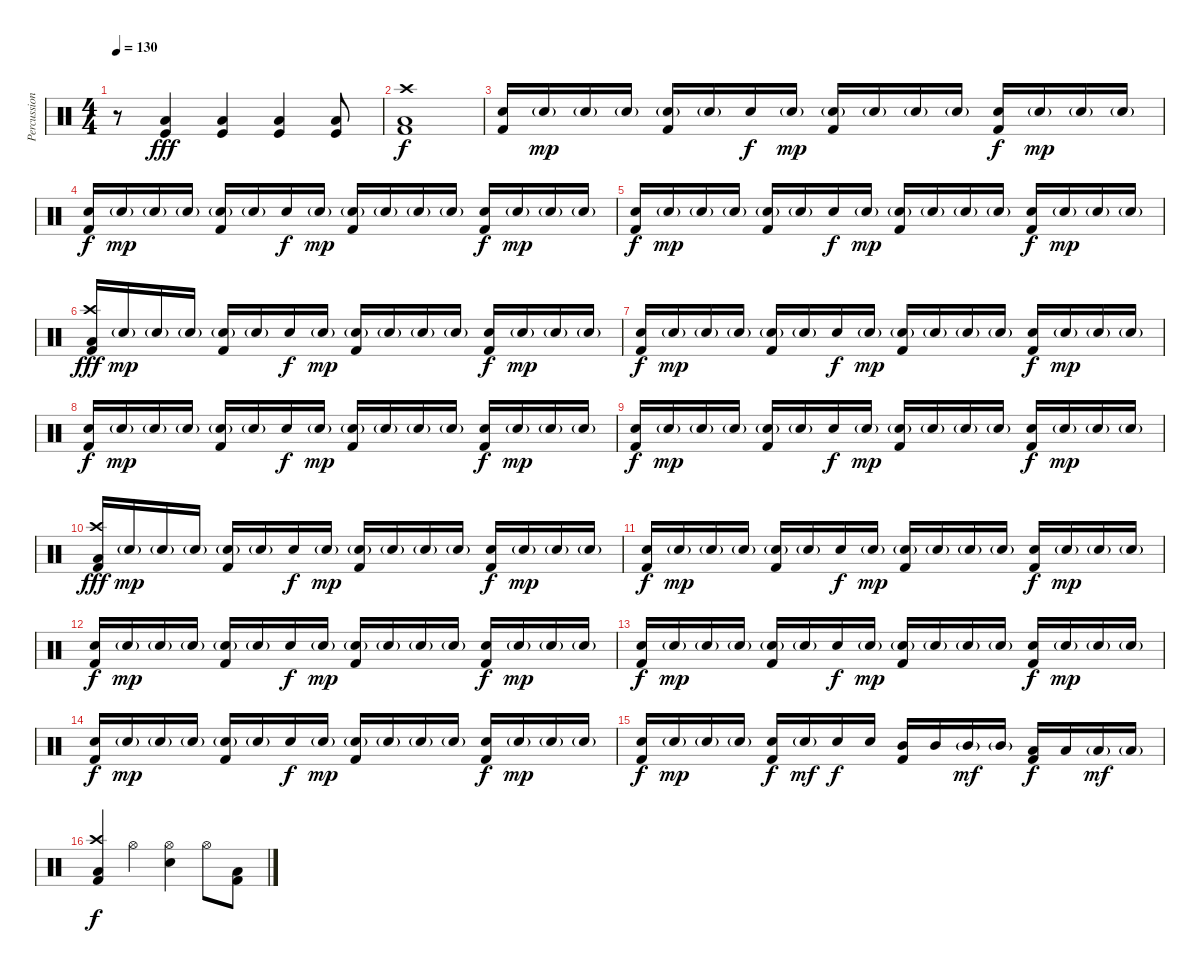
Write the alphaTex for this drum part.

\track ("Percussion" "Percussion") {instrument percussion}
\staff {score}
\articulation defaults
\ts (4 4)
\tempo 130
\clef neutral
\ks c
r.8{dy fff} ("Low Floor Tom (hit)" "Kick (hit)").4 ("Low Floor Tom (hit)" "Kick (hit)").4 ("Low Floor Tom (hit)" "Kick (hit)").4 ("Low Floor Tom (hit)" "Kick (hit)").8 |
("Crash high (hit)" "Low Floor Tom (hit)" "Kick (hit) 2").1{dy f} |
("Electric Snare (hit)" "Kick (hit) 2").16{volume 0} "Electric Snare (hit)"{g}.16{dy mp} "Electric Snare (hit)"{g}.16 "Electric Snare (hit)"{g}.16 ("Electric Snare (hit)"{g} "Kick (hit) 2").16{volume 7} "Electric Snare (hit)"{g}.16 "Electric Snare (hit)".16{dy f} "Electric Snare (hit)"{g}.16{dy mp} ("Electric Snare (hit)"{g} "Kick (hit) 2").16 "Electric Snare (hit)"{g}.16 "Electric Snare (hit)"{g}.16 "Electric Snare (hit)"{g}.16 ("Electric Snare (hit)" "Kick (hit) 2").16{dy f} "Electric Snare (hit)"{g}.16{dy mp} "Electric Snare (hit)"{g}.16 "Electric Snare (hit)"{g}.16 |
("Electric Snare (hit)" "Kick (hit) 2").16{dy f} "Electric Snare (hit)"{g}.16{dy mp} "Electric Snare (hit)"{g}.16 "Electric Snare (hit)"{g}.16 ("Electric Snare (hit)"{g} "Kick (hit) 2").16 "Electric Snare (hit)"{g}.16 "Electric Snare (hit)".16{dy f} "Electric Snare (hit)"{g}.16{dy mp} ("Electric Snare (hit)"{g} "Kick (hit) 2").16 "Electric Snare (hit)"{g}.16 "Electric Snare (hit)"{g}.16 "Electric Snare (hit)"{g}.16 ("Electric Snare (hit)" "Kick (hit) 2").16{dy f} "Electric Snare (hit)"{g}.16{dy mp} "Electric Snare (hit)"{g}.16 "Electric Snare (hit)"{g}.16 |
("Electric Snare (hit)" "Kick (hit) 2").16{dy f} "Electric Snare (hit)"{g}.16{dy mp} "Electric Snare (hit)"{g}.16 "Electric Snare (hit)"{g}.16 ("Electric Snare (hit)"{g} "Kick (hit) 2").16 "Electric Snare (hit)"{g}.16 "Electric Snare (hit)".16{dy f} "Electric Snare (hit)"{g}.16{dy mp} ("Electric Snare (hit)"{g} "Kick (hit) 2").16 "Electric Snare (hit)"{g}.16 "Electric Snare (hit)"{g}.16 "Electric Snare (hit)"{g}.16 ("Electric Snare (hit)" "Kick (hit) 2").16{dy f} "Electric Snare (hit)"{g}.16{dy mp} "Electric Snare (hit)"{g}.16 "Electric Snare (hit)"{g}.16 |
("Crash high (hit)" "Low Floor Tom (hit)" "Kick (hit) 2").16{dy fff} "Electric Snare (hit)"{g}.16{dy mp} "Electric Snare (hit)"{g}.16 "Electric Snare (hit)"{g}.16 ("Electric Snare (hit)"{g} "Kick (hit) 2").16 "Electric Snare (hit)"{g}.16 "Electric Snare (hit)".16{dy f} "Electric Snare (hit)"{g}.16{dy mp} ("Electric Snare (hit)"{g} "Kick (hit) 2").16 "Electric Snare (hit)"{g}.16 "Electric Snare (hit)"{g}.16 "Electric Snare (hit)"{g}.16 ("Electric Snare (hit)" "Kick (hit) 2").16{dy f} "Electric Snare (hit)"{g}.16{dy mp} "Electric Snare (hit)"{g}.16 "Electric Snare (hit)"{g}.16 |
("Electric Snare (hit)" "Kick (hit) 2").16{dy f} "Electric Snare (hit)"{g}.16{dy mp} "Electric Snare (hit)"{g}.16 "Electric Snare (hit)"{g}.16 ("Electric Snare (hit)"{g} "Kick (hit) 2").16 "Electric Snare (hit)"{g}.16 "Electric Snare (hit)".16{dy f} "Electric Snare (hit)"{g}.16{dy mp} ("Electric Snare (hit)"{g} "Kick (hit) 2").16 "Electric Snare (hit)"{g}.16 "Electric Snare (hit)"{g}.16 "Electric Snare (hit)"{g}.16 ("Electric Snare (hit)" "Kick (hit) 2").16{dy f} "Electric Snare (hit)"{g}.16{dy mp} "Electric Snare (hit)"{g}.16 "Electric Snare (hit)"{g}.16 |
("Electric Snare (hit)" "Kick (hit) 2").16{dy f} "Electric Snare (hit)"{g}.16{dy mp} "Electric Snare (hit)"{g}.16 "Electric Snare (hit)"{g}.16 ("Electric Snare (hit)"{g} "Kick (hit) 2").16 "Electric Snare (hit)"{g}.16 "Electric Snare (hit)".16{dy f} "Electric Snare (hit)"{g}.16{dy mp} ("Electric Snare (hit)"{g} "Kick (hit) 2").16 "Electric Snare (hit)"{g}.16 "Electric Snare (hit)"{g}.16 "Electric Snare (hit)"{g}.16 ("Electric Snare (hit)" "Kick (hit) 2").16{dy f} "Electric Snare (hit)"{g}.16{dy mp} "Electric Snare (hit)"{g}.16 "Electric Snare (hit)"{g}.16 |
("Electric Snare (hit)" "Kick (hit) 2").16{dy f} "Electric Snare (hit)"{g}.16{dy mp} "Electric Snare (hit)"{g}.16 "Electric Snare (hit)"{g}.16 ("Electric Snare (hit)"{g} "Kick (hit) 2").16 "Electric Snare (hit)"{g}.16 "Electric Snare (hit)".16{dy f} "Electric Snare (hit)"{g}.16{dy mp} ("Electric Snare (hit)"{g} "Kick (hit) 2").16 "Electric Snare (hit)"{g}.16 "Electric Snare (hit)"{g}.16 "Electric Snare (hit)"{g}.16 ("Electric Snare (hit)" "Kick (hit) 2").16{dy f} "Electric Snare (hit)"{g}.16{dy mp} "Electric Snare (hit)"{g}.16 "Electric Snare (hit)"{g}.16 |
("Crash high (hit)" "Low Floor Tom (hit)" "Kick (hit) 2").16{dy fff volume 12} "Electric Snare (hit)"{g}.16{dy mp} "Electric Snare (hit)"{g}.16 "Electric Snare (hit)"{g}.16 ("Electric Snare (hit)"{g} "Kick (hit) 2").16 "Electric Snare (hit)"{g}.16 "Electric Snare (hit)".16{dy f} "Electric Snare (hit)"{g}.16{dy mp} ("Electric Snare (hit)"{g} "Kick (hit) 2").16 "Electric Snare (hit)"{g}.16 "Electric Snare (hit)"{g}.16 "Electric Snare (hit)"{g}.16 ("Electric Snare (hit)" "Kick (hit) 2").16{dy f} "Electric Snare (hit)"{g}.16{dy mp} "Electric Snare (hit)"{g}.16 "Electric Snare (hit)"{g}.16 |
("Electric Snare (hit)" "Kick (hit) 2").16{dy f} "Electric Snare (hit)"{g}.16{dy mp} "Electric Snare (hit)"{g}.16 "Electric Snare (hit)"{g}.16 ("Electric Snare (hit)"{g} "Kick (hit) 2").16 "Electric Snare (hit)"{g}.16 "Electric Snare (hit)".16{dy f} "Electric Snare (hit)"{g}.16{dy mp} ("Electric Snare (hit)"{g} "Kick (hit) 2").16 "Electric Snare (hit)"{g}.16 "Electric Snare (hit)"{g}.16 "Electric Snare (hit)"{g}.16 ("Electric Snare (hit)" "Kick (hit) 2").16{dy f} "Electric Snare (hit)"{g}.16{dy mp} "Electric Snare (hit)"{g}.16 "Electric Snare (hit)"{g}.16 |
("Electric Snare (hit)" "Kick (hit) 2").16{dy f} "Electric Snare (hit)"{g}.16{dy mp} "Electric Snare (hit)"{g}.16 "Electric Snare (hit)"{g}.16 ("Electric Snare (hit)"{g} "Kick (hit) 2").16 "Electric Snare (hit)"{g}.16 "Electric Snare (hit)".16{dy f} "Electric Snare (hit)"{g}.16{dy mp} ("Electric Snare (hit)"{g} "Kick (hit) 2").16 "Electric Snare (hit)"{g}.16 "Electric Snare (hit)"{g}.16 "Electric Snare (hit)"{g}.16 ("Electric Snare (hit)" "Kick (hit) 2").16{dy f} "Electric Snare (hit)"{g}.16{dy mp} "Electric Snare (hit)"{g}.16 "Electric Snare (hit)"{g}.16 |
("Electric Snare (hit)" "Kick (hit) 2").16{dy f} "Electric Snare (hit)"{g}.16{dy mp} "Electric Snare (hit)"{g}.16 "Electric Snare (hit)"{g}.16 ("Electric Snare (hit)"{g} "Kick (hit) 2").16 "Electric Snare (hit)"{g}.16 "Electric Snare (hit)".16{dy f} "Electric Snare (hit)"{g}.16{dy mp} ("Electric Snare (hit)"{g} "Kick (hit) 2").16 "Electric Snare (hit)"{g}.16 "Electric Snare (hit)"{g}.16 "Electric Snare (hit)"{g}.16 ("Electric Snare (hit)" "Kick (hit) 2").16{dy f} "Electric Snare (hit)"{g}.16{dy mp} "Electric Snare (hit)"{g}.16 "Electric Snare (hit)"{g}.16 |
("Electric Snare (hit)" "Kick (hit) 2").16{dy f} "Electric Snare (hit)"{g}.16{dy mp} "Electric Snare (hit)"{g}.16 "Electric Snare (hit)"{g}.16 ("Electric Snare (hit)"{g} "Kick (hit) 2").16 "Electric Snare (hit)"{g}.16 "Electric Snare (hit)".16{dy f} "Electric Snare (hit)"{g}.16{dy mp} ("Electric Snare (hit)"{g} "Kick (hit) 2").16 "Electric Snare (hit)"{g}.16 "Electric Snare (hit)"{g}.16 "Electric Snare (hit)"{g}.16 ("Electric Snare (hit)" "Kick (hit) 2").16{dy f} "Electric Snare (hit)"{g}.16{dy mp} "Electric Snare (hit)"{g}.16 "Electric Snare (hit)"{g}.16 |
("Electric Snare (hit)" "Kick (hit) 2").16{dy f} "Electric Snare (hit)"{g}.16{dy mp} "Electric Snare (hit)"{g}.16 "Electric Snare (hit)"{g}.16 ("Electric Snare (hit)" "Kick (hit) 2").16{dy f} "Electric Snare (hit)"{g}.16{dy mf} "Electric Snare (hit)".16{dy f} "Electric Snare (hit)".16 ("Mid Tom (hit)" "Kick (hit) 2").16 "Mid Tom (hit)".16 "Mid Tom (hit)"{g}.16{dy mf} "Mid Tom (hit)"{g}.16 ("Low Tom (hit)" "Kick (hit) 2").16{dy f} "Low Tom (hit)".16 "Low Tom (hit)"{g}.16{dy mf} "Low Tom (hit)"{g}.16 |
("Crash high (hit)" "Low Floor Tom (hit)" "Kick (hit) 2").4{dy f} "Hi-Hat (open)".4 ("Hi-Hat (open)" "Electric Snare (hit)").4 "Hi-Hat (open)".8 ("Low Floor Tom (hit)" "Kick (hit) 2").8
